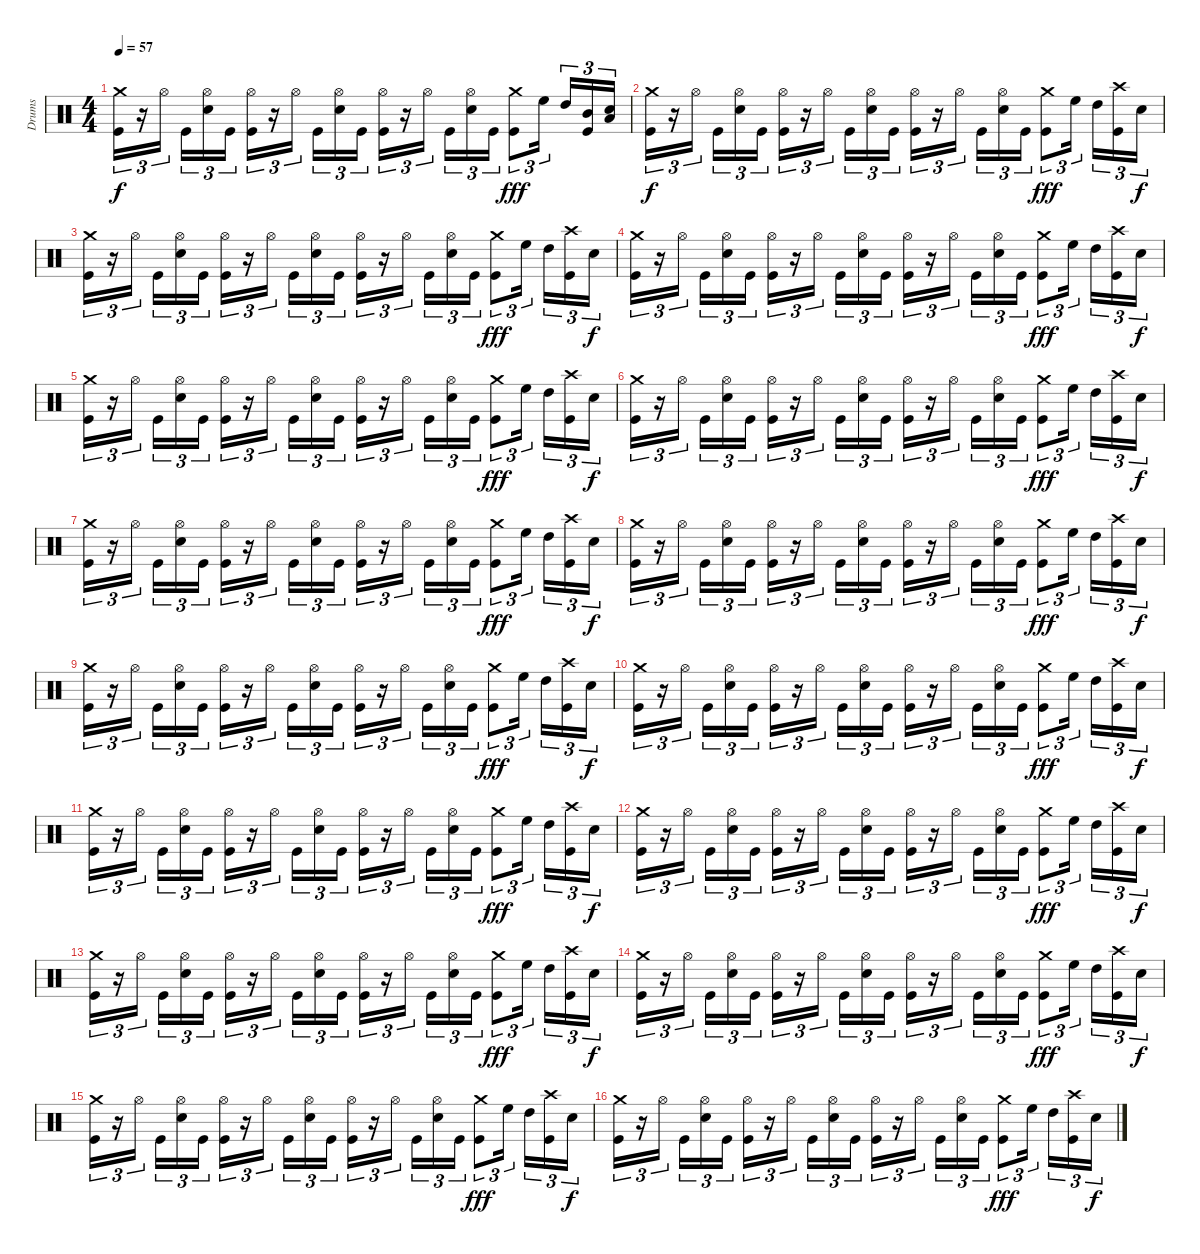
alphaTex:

\track ("Drums" "Drums") {instrument percussion}
\staff {score}
\articulation defaults
\ts (4 4)
\tempo 57
\clef neutral
\ks c
("Kick (hit)" "Crash medium (hit)").16{tu (3 2) dy f} r.16{tu (3 2)} "Hi-Hat (open)".16{tu (3 2) beam splitsecondary} "Kick (hit)".16{tu (3 2)} ("Snare (hit) 2" "Hi-Hat (open)").16{tu (3 2)} "Kick (hit)".16{tu (3 2)} ("Kick (hit)" "Hi-Hat (open)").16{tu (3 2)} r.16{tu (3 2)} "Hi-Hat (open)".16{tu (3 2) beam splitsecondary} "Kick (hit)".16{tu (3 2)} ("Snare (hit) 2" "Hi-Hat (open)").16{tu (3 2)} "Kick (hit)".16{tu (3 2)} ("Kick (hit)" "Hi-Hat (open)").16{tu (3 2)} r.16{tu (3 2)} "Hi-Hat (open)".16{tu (3 2) beam splitsecondary} "Kick (hit)".16{tu (3 2)} ("Snare (hit) 2" "Hi-Hat (open)").16{tu (3 2)} "Kick (hit)".16{tu (3 2)} ("Kick (hit)" "Crash medium (hit)").8{tu (3 2) dy fff} "High Floor Tom (hit)".16{tu (3 2) beam splitsecondary} "High Tom (hit)".16{tu (3 2)} ("Kick (hit)" "Mid Tom (hit)").16{tu (3 2)} ("Snare (hit) 2" "Low Tom (hit)").16{tu (3 2)} |
("Kick (hit)" "Crash medium (hit)").16{tu (3 2) dy f} r.16{tu (3 2)} "Hi-Hat (open)".16{tu (3 2) beam splitsecondary} "Kick (hit)".16{tu (3 2)} ("Snare (hit) 2" "Hi-Hat (open)").16{tu (3 2)} "Kick (hit)".16{tu (3 2)} ("Kick (hit)" "Hi-Hat (open)").16{tu (3 2)} r.16{tu (3 2)} "Hi-Hat (open)".16{tu (3 2) beam splitsecondary} "Kick (hit)".16{tu (3 2)} ("Snare (hit) 2" "Hi-Hat (open)").16{tu (3 2)} "Kick (hit)".16{tu (3 2)} ("Kick (hit)" "Hi-Hat (open)").16{tu (3 2)} r.16{tu (3 2)} "Hi-Hat (open)".16{tu (3 2) beam splitsecondary} "Kick (hit)".16{tu (3 2)} ("Snare (hit) 2" "Hi-Hat (open)").16{tu (3 2)} "Kick (hit)".16{tu (3 2)} ("Kick (hit)" "Crash medium (hit)").8{tu (3 2) dy fff} "High Floor Tom (hit)".16{tu (3 2) beam splitsecondary} "High Tom (hit)".16{tu (3 2)} ("Kick (hit)" "Crash high (hit)").16{tu (3 2)} "Snare (hit) 2".16{tu (3 2) dy f} |
("Kick (hit)" "Crash medium (hit)").16{tu (3 2)} r.16{tu (3 2)} "Hi-Hat (open)".16{tu (3 2) beam splitsecondary} "Kick (hit)".16{tu (3 2)} ("Snare (hit) 2" "Hi-Hat (open)").16{tu (3 2)} "Kick (hit)".16{tu (3 2)} ("Kick (hit)" "Hi-Hat (open)").16{tu (3 2)} r.16{tu (3 2)} "Hi-Hat (open)".16{tu (3 2) beam splitsecondary} "Kick (hit)".16{tu (3 2)} ("Snare (hit) 2" "Hi-Hat (open)").16{tu (3 2)} "Kick (hit)".16{tu (3 2)} ("Kick (hit)" "Hi-Hat (open)").16{tu (3 2)} r.16{tu (3 2)} "Hi-Hat (open)".16{tu (3 2) beam splitsecondary} "Kick (hit)".16{tu (3 2)} ("Snare (hit) 2" "Hi-Hat (open)").16{tu (3 2)} "Kick (hit)".16{tu (3 2)} ("Kick (hit)" "Crash medium (hit)").8{tu (3 2) dy fff} "High Floor Tom (hit)".16{tu (3 2) beam splitsecondary} "High Tom (hit)".16{tu (3 2)} ("Kick (hit)" "Crash high (hit)").16{tu (3 2)} "Snare (hit) 2".16{tu (3 2) dy f} |
("Kick (hit)" "Crash medium (hit)").16{tu (3 2)} r.16{tu (3 2)} "Hi-Hat (open)".16{tu (3 2) beam splitsecondary} "Kick (hit)".16{tu (3 2)} ("Snare (hit) 2" "Hi-Hat (open)").16{tu (3 2)} "Kick (hit)".16{tu (3 2)} ("Kick (hit)" "Hi-Hat (open)").16{tu (3 2)} r.16{tu (3 2)} "Hi-Hat (open)".16{tu (3 2) beam splitsecondary} "Kick (hit)".16{tu (3 2)} ("Snare (hit) 2" "Hi-Hat (open)").16{tu (3 2)} "Kick (hit)".16{tu (3 2)} ("Kick (hit)" "Hi-Hat (open)").16{tu (3 2)} r.16{tu (3 2)} "Hi-Hat (open)".16{tu (3 2) beam splitsecondary} "Kick (hit)".16{tu (3 2)} ("Snare (hit) 2" "Hi-Hat (open)").16{tu (3 2)} "Kick (hit)".16{tu (3 2)} ("Kick (hit)" "Crash medium (hit)").8{tu (3 2) dy fff} "High Floor Tom (hit)".16{tu (3 2) beam splitsecondary} "High Tom (hit)".16{tu (3 2)} ("Kick (hit)" "Crash high (hit)").16{tu (3 2)} "Snare (hit) 2".16{tu (3 2) dy f} |
("Kick (hit)" "Crash medium (hit)").16{tu (3 2)} r.16{tu (3 2)} "Hi-Hat (open)".16{tu (3 2) beam splitsecondary} "Kick (hit)".16{tu (3 2)} ("Snare (hit) 2" "Hi-Hat (open)").16{tu (3 2)} "Kick (hit)".16{tu (3 2)} ("Kick (hit)" "Hi-Hat (open)").16{tu (3 2)} r.16{tu (3 2)} "Hi-Hat (open)".16{tu (3 2) beam splitsecondary} "Kick (hit)".16{tu (3 2)} ("Snare (hit) 2" "Hi-Hat (open)").16{tu (3 2)} "Kick (hit)".16{tu (3 2)} ("Kick (hit)" "Hi-Hat (open)").16{tu (3 2)} r.16{tu (3 2)} "Hi-Hat (open)".16{tu (3 2) beam splitsecondary} "Kick (hit)".16{tu (3 2)} ("Snare (hit) 2" "Hi-Hat (open)").16{tu (3 2)} "Kick (hit)".16{tu (3 2)} ("Kick (hit)" "Crash medium (hit)").8{tu (3 2) dy fff} "High Floor Tom (hit)".16{tu (3 2) beam splitsecondary} "High Tom (hit)".16{tu (3 2)} ("Kick (hit)" "Crash high (hit)").16{tu (3 2)} "Snare (hit) 2".16{tu (3 2) dy f} |
("Kick (hit)" "Crash medium (hit)").16{tu (3 2)} r.16{tu (3 2)} "Hi-Hat (open)".16{tu (3 2) beam splitsecondary} "Kick (hit)".16{tu (3 2)} ("Snare (hit) 2" "Hi-Hat (open)").16{tu (3 2)} "Kick (hit)".16{tu (3 2)} ("Kick (hit)" "Hi-Hat (open)").16{tu (3 2)} r.16{tu (3 2)} "Hi-Hat (open)".16{tu (3 2) beam splitsecondary} "Kick (hit)".16{tu (3 2)} ("Snare (hit) 2" "Hi-Hat (open)").16{tu (3 2)} "Kick (hit)".16{tu (3 2)} ("Kick (hit)" "Hi-Hat (open)").16{tu (3 2)} r.16{tu (3 2)} "Hi-Hat (open)".16{tu (3 2) beam splitsecondary} "Kick (hit)".16{tu (3 2)} ("Snare (hit) 2" "Hi-Hat (open)").16{tu (3 2)} "Kick (hit)".16{tu (3 2)} ("Kick (hit)" "Crash medium (hit)").8{tu (3 2) dy fff} "High Floor Tom (hit)".16{tu (3 2) beam splitsecondary} "High Tom (hit)".16{tu (3 2)} ("Kick (hit)" "Crash high (hit)").16{tu (3 2)} "Snare (hit) 2".16{tu (3 2) dy f} |
("Kick (hit)" "Crash medium (hit)").16{tu (3 2)} r.16{tu (3 2)} "Hi-Hat (open)".16{tu (3 2) beam splitsecondary} "Kick (hit)".16{tu (3 2)} ("Snare (hit) 2" "Hi-Hat (open)").16{tu (3 2)} "Kick (hit)".16{tu (3 2)} ("Kick (hit)" "Hi-Hat (open)").16{tu (3 2)} r.16{tu (3 2)} "Hi-Hat (open)".16{tu (3 2) beam splitsecondary} "Kick (hit)".16{tu (3 2)} ("Snare (hit) 2" "Hi-Hat (open)").16{tu (3 2)} "Kick (hit)".16{tu (3 2)} ("Kick (hit)" "Hi-Hat (open)").16{tu (3 2)} r.16{tu (3 2)} "Hi-Hat (open)".16{tu (3 2) beam splitsecondary} "Kick (hit)".16{tu (3 2)} ("Snare (hit) 2" "Hi-Hat (open)").16{tu (3 2)} "Kick (hit)".16{tu (3 2)} ("Kick (hit)" "Crash medium (hit)").8{tu (3 2) dy fff} "High Floor Tom (hit)".16{tu (3 2) beam splitsecondary} "High Tom (hit)".16{tu (3 2)} ("Kick (hit)" "Crash high (hit)").16{tu (3 2)} "Snare (hit) 2".16{tu (3 2) dy f} |
("Kick (hit)" "Crash medium (hit)").16{tu (3 2)} r.16{tu (3 2)} "Hi-Hat (open)".16{tu (3 2) beam splitsecondary} "Kick (hit)".16{tu (3 2)} ("Snare (hit) 2" "Hi-Hat (open)").16{tu (3 2)} "Kick (hit)".16{tu (3 2)} ("Kick (hit)" "Hi-Hat (open)").16{tu (3 2)} r.16{tu (3 2)} "Hi-Hat (open)".16{tu (3 2) beam splitsecondary} "Kick (hit)".16{tu (3 2)} ("Snare (hit) 2" "Hi-Hat (open)").16{tu (3 2)} "Kick (hit)".16{tu (3 2)} ("Kick (hit)" "Hi-Hat (open)").16{tu (3 2)} r.16{tu (3 2)} "Hi-Hat (open)".16{tu (3 2) beam splitsecondary} "Kick (hit)".16{tu (3 2)} ("Snare (hit) 2" "Hi-Hat (open)").16{tu (3 2)} "Kick (hit)".16{tu (3 2)} ("Kick (hit)" "Crash medium (hit)").8{tu (3 2) dy fff} "High Floor Tom (hit)".16{tu (3 2) beam splitsecondary} "High Tom (hit)".16{tu (3 2)} ("Kick (hit)" "Crash high (hit)").16{tu (3 2)} "Snare (hit) 2".16{tu (3 2) dy f} |
("Kick (hit)" "Crash medium (hit)").16{tu (3 2)} r.16{tu (3 2)} "Hi-Hat (open)".16{tu (3 2) beam splitsecondary} "Kick (hit)".16{tu (3 2)} ("Snare (hit) 2" "Hi-Hat (open)").16{tu (3 2)} "Kick (hit)".16{tu (3 2)} ("Kick (hit)" "Hi-Hat (open)").16{tu (3 2)} r.16{tu (3 2)} "Hi-Hat (open)".16{tu (3 2) beam splitsecondary} "Kick (hit)".16{tu (3 2)} ("Snare (hit) 2" "Hi-Hat (open)").16{tu (3 2)} "Kick (hit)".16{tu (3 2)} ("Kick (hit)" "Hi-Hat (open)").16{tu (3 2)} r.16{tu (3 2)} "Hi-Hat (open)".16{tu (3 2) beam splitsecondary} "Kick (hit)".16{tu (3 2)} ("Snare (hit) 2" "Hi-Hat (open)").16{tu (3 2)} "Kick (hit)".16{tu (3 2)} ("Kick (hit)" "Crash medium (hit)").8{tu (3 2) dy fff} "High Floor Tom (hit)".16{tu (3 2) beam splitsecondary} "High Tom (hit)".16{tu (3 2)} ("Kick (hit)" "Crash high (hit)").16{tu (3 2)} "Snare (hit) 2".16{tu (3 2) dy f} |
("Kick (hit)" "Crash medium (hit)").16{tu (3 2)} r.16{tu (3 2)} "Hi-Hat (open)".16{tu (3 2) beam splitsecondary} "Kick (hit)".16{tu (3 2)} ("Snare (hit) 2" "Hi-Hat (open)").16{tu (3 2)} "Kick (hit)".16{tu (3 2)} ("Kick (hit)" "Hi-Hat (open)").16{tu (3 2)} r.16{tu (3 2)} "Hi-Hat (open)".16{tu (3 2) beam splitsecondary} "Kick (hit)".16{tu (3 2)} ("Snare (hit) 2" "Hi-Hat (open)").16{tu (3 2)} "Kick (hit)".16{tu (3 2)} ("Kick (hit)" "Hi-Hat (open)").16{tu (3 2)} r.16{tu (3 2)} "Hi-Hat (open)".16{tu (3 2) beam splitsecondary} "Kick (hit)".16{tu (3 2)} ("Snare (hit) 2" "Hi-Hat (open)").16{tu (3 2)} "Kick (hit)".16{tu (3 2)} ("Kick (hit)" "Crash medium (hit)").8{tu (3 2) dy fff} "High Floor Tom (hit)".16{tu (3 2) beam splitsecondary} "High Tom (hit)".16{tu (3 2)} ("Kick (hit)" "Crash high (hit)").16{tu (3 2)} "Snare (hit) 2".16{tu (3 2) dy f} |
("Kick (hit)" "Crash medium (hit)").16{tu (3 2)} r.16{tu (3 2)} "Hi-Hat (open)".16{tu (3 2) beam splitsecondary} "Kick (hit)".16{tu (3 2)} ("Snare (hit) 2" "Hi-Hat (open)").16{tu (3 2)} "Kick (hit)".16{tu (3 2)} ("Kick (hit)" "Hi-Hat (open)").16{tu (3 2)} r.16{tu (3 2)} "Hi-Hat (open)".16{tu (3 2) beam splitsecondary} "Kick (hit)".16{tu (3 2)} ("Snare (hit) 2" "Hi-Hat (open)").16{tu (3 2)} "Kick (hit)".16{tu (3 2)} ("Kick (hit)" "Hi-Hat (open)").16{tu (3 2)} r.16{tu (3 2)} "Hi-Hat (open)".16{tu (3 2) beam splitsecondary} "Kick (hit)".16{tu (3 2)} ("Snare (hit) 2" "Hi-Hat (open)").16{tu (3 2)} "Kick (hit)".16{tu (3 2)} ("Kick (hit)" "Crash medium (hit)").8{tu (3 2) dy fff} "High Floor Tom (hit)".16{tu (3 2) beam splitsecondary} "High Tom (hit)".16{tu (3 2)} ("Kick (hit)" "Crash high (hit)").16{tu (3 2)} "Snare (hit) 2".16{tu (3 2) dy f} |
("Kick (hit)" "Crash medium (hit)").16{tu (3 2)} r.16{tu (3 2)} "Hi-Hat (open)".16{tu (3 2) beam splitsecondary} "Kick (hit)".16{tu (3 2)} ("Snare (hit) 2" "Hi-Hat (open)").16{tu (3 2)} "Kick (hit)".16{tu (3 2)} ("Kick (hit)" "Hi-Hat (open)").16{tu (3 2)} r.16{tu (3 2)} "Hi-Hat (open)".16{tu (3 2) beam splitsecondary} "Kick (hit)".16{tu (3 2)} ("Snare (hit) 2" "Hi-Hat (open)").16{tu (3 2)} "Kick (hit)".16{tu (3 2)} ("Kick (hit)" "Hi-Hat (open)").16{tu (3 2)} r.16{tu (3 2)} "Hi-Hat (open)".16{tu (3 2) beam splitsecondary} "Kick (hit)".16{tu (3 2)} ("Snare (hit) 2" "Hi-Hat (open)").16{tu (3 2)} "Kick (hit)".16{tu (3 2)} ("Kick (hit)" "Crash medium (hit)").8{tu (3 2) dy fff} "High Floor Tom (hit)".16{tu (3 2) beam splitsecondary} "High Tom (hit)".16{tu (3 2)} ("Kick (hit)" "Crash high (hit)").16{tu (3 2)} "Snare (hit) 2".16{tu (3 2) dy f} |
("Kick (hit)" "Crash medium (hit)").16{tu (3 2)} r.16{tu (3 2)} "Hi-Hat (open)".16{tu (3 2) beam splitsecondary} "Kick (hit)".16{tu (3 2)} ("Snare (hit) 2" "Hi-Hat (open)").16{tu (3 2)} "Kick (hit)".16{tu (3 2)} ("Kick (hit)" "Hi-Hat (open)").16{tu (3 2)} r.16{tu (3 2)} "Hi-Hat (open)".16{tu (3 2) beam splitsecondary} "Kick (hit)".16{tu (3 2)} ("Snare (hit) 2" "Hi-Hat (open)").16{tu (3 2)} "Kick (hit)".16{tu (3 2)} ("Kick (hit)" "Hi-Hat (open)").16{tu (3 2)} r.16{tu (3 2)} "Hi-Hat (open)".16{tu (3 2) beam splitsecondary} "Kick (hit)".16{tu (3 2)} ("Snare (hit) 2" "Hi-Hat (open)").16{tu (3 2)} "Kick (hit)".16{tu (3 2)} ("Kick (hit)" "Crash medium (hit)").8{tu (3 2) dy fff} "High Floor Tom (hit)".16{tu (3 2) beam splitsecondary} "High Tom (hit)".16{tu (3 2)} ("Kick (hit)" "Crash high (hit)").16{tu (3 2)} "Snare (hit) 2".16{tu (3 2) dy f} |
("Kick (hit)" "Crash medium (hit)").16{tu (3 2)} r.16{tu (3 2)} "Hi-Hat (open)".16{tu (3 2) beam splitsecondary} "Kick (hit)".16{tu (3 2)} ("Snare (hit) 2" "Hi-Hat (open)").16{tu (3 2)} "Kick (hit)".16{tu (3 2)} ("Kick (hit)" "Hi-Hat (open)").16{tu (3 2)} r.16{tu (3 2)} "Hi-Hat (open)".16{tu (3 2) beam splitsecondary} "Kick (hit)".16{tu (3 2)} ("Snare (hit) 2" "Hi-Hat (open)").16{tu (3 2)} "Kick (hit)".16{tu (3 2)} ("Kick (hit)" "Hi-Hat (open)").16{tu (3 2)} r.16{tu (3 2)} "Hi-Hat (open)".16{tu (3 2) beam splitsecondary} "Kick (hit)".16{tu (3 2)} ("Snare (hit) 2" "Hi-Hat (open)").16{tu (3 2)} "Kick (hit)".16{tu (3 2)} ("Kick (hit)" "Crash medium (hit)").8{tu (3 2) dy fff} "High Floor Tom (hit)".16{tu (3 2) beam splitsecondary} "High Tom (hit)".16{tu (3 2)} ("Kick (hit)" "Crash high (hit)").16{tu (3 2)} "Snare (hit) 2".16{tu (3 2) dy f} |
("Kick (hit)" "Crash medium (hit)").16{tu (3 2)} r.16{tu (3 2)} "Hi-Hat (open)".16{tu (3 2) beam splitsecondary} "Kick (hit)".16{tu (3 2)} ("Snare (hit) 2" "Hi-Hat (open)").16{tu (3 2)} "Kick (hit)".16{tu (3 2)} ("Kick (hit)" "Hi-Hat (open)").16{tu (3 2)} r.16{tu (3 2)} "Hi-Hat (open)".16{tu (3 2) beam splitsecondary} "Kick (hit)".16{tu (3 2)} ("Snare (hit) 2" "Hi-Hat (open)").16{tu (3 2)} "Kick (hit)".16{tu (3 2)} ("Kick (hit)" "Hi-Hat (open)").16{tu (3 2)} r.16{tu (3 2)} "Hi-Hat (open)".16{tu (3 2) beam splitsecondary} "Kick (hit)".16{tu (3 2)} ("Snare (hit) 2" "Hi-Hat (open)").16{tu (3 2)} "Kick (hit)".16{tu (3 2)} ("Kick (hit)" "Crash medium (hit)").8{tu (3 2) dy fff} "High Floor Tom (hit)".16{tu (3 2) beam splitsecondary} "High Tom (hit)".16{tu (3 2)} ("Kick (hit)" "Crash high (hit)").16{tu (3 2)} "Snare (hit) 2".16{tu (3 2) dy f} |
("Kick (hit)" "Crash medium (hit)").16{tu (3 2)} r.16{tu (3 2)} "Hi-Hat (open)".16{tu (3 2) beam splitsecondary} "Kick (hit)".16{tu (3 2)} ("Snare (hit) 2" "Hi-Hat (open)").16{tu (3 2)} "Kick (hit)".16{tu (3 2)} ("Kick (hit)" "Hi-Hat (open)").16{tu (3 2)} r.16{tu (3 2)} "Hi-Hat (open)".16{tu (3 2) beam splitsecondary} "Kick (hit)".16{tu (3 2)} ("Snare (hit) 2" "Hi-Hat (open)").16{tu (3 2)} "Kick (hit)".16{tu (3 2)} ("Kick (hit)" "Hi-Hat (open)").16{tu (3 2)} r.16{tu (3 2)} "Hi-Hat (open)".16{tu (3 2) beam splitsecondary} "Kick (hit)".16{tu (3 2)} ("Snare (hit) 2" "Hi-Hat (open)").16{tu (3 2)} "Kick (hit)".16{tu (3 2)} ("Kick (hit)" "Crash medium (hit)").8{tu (3 2) dy fff} "High Floor Tom (hit)".16{tu (3 2) beam splitsecondary} "High Tom (hit)".16{tu (3 2)} ("Kick (hit)" "Crash high (hit)").16{tu (3 2)} "Snare (hit) 2".16{tu (3 2) dy f}
